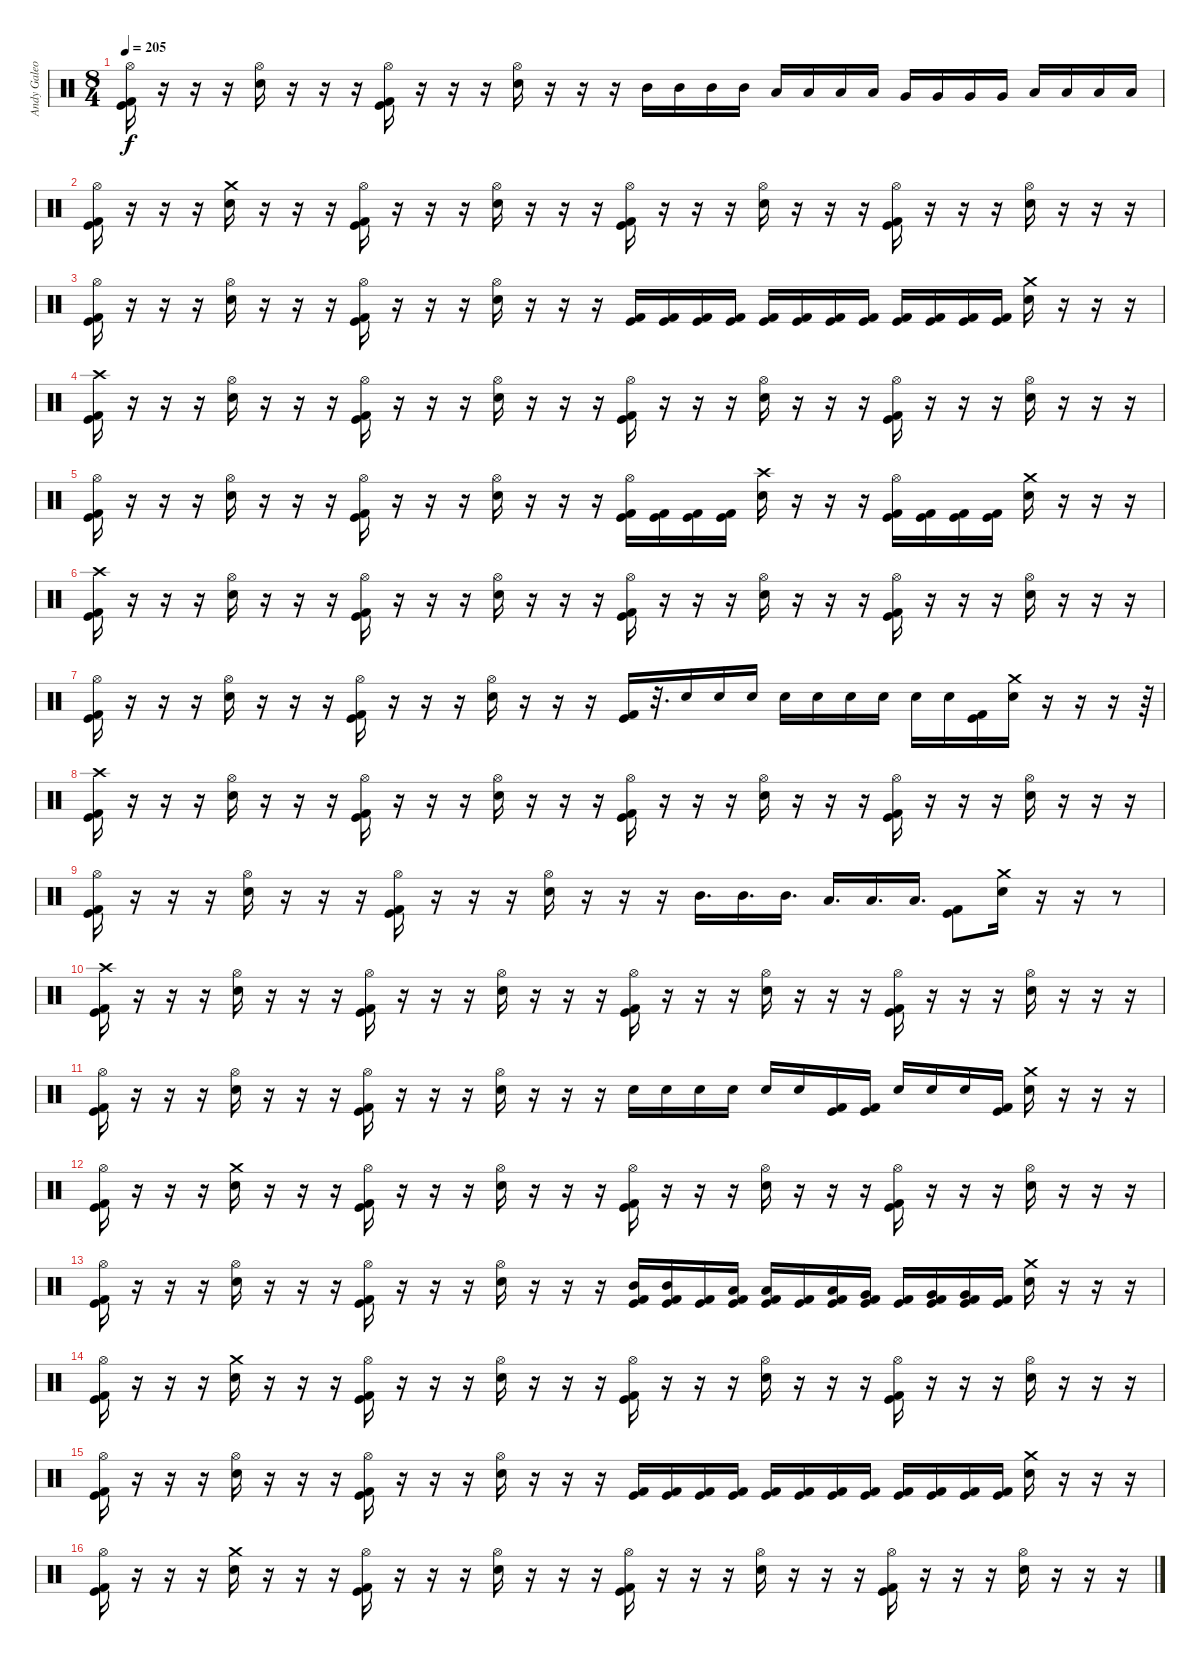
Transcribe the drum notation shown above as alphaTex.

\track ("Andy Galeon - Drums" "Andy Galeo") {instrument percussion}
\staff {score}
\articulation defaults
\ts (8 4)
\tempo 205
\clef neutral
\ks c
("Hi-Hat (open)" "Kick (hit) 2" "Kick (hit)").16{dy f} r.16 r.16 r.16 ("Hi-Hat (open)" "Electric Snare (hit)").16 r.16 r.16 r.16 ("Hi-Hat (open)" "Kick (hit) 2" "Kick (hit)").16 r.16 r.16 r.16 ("Hi-Hat (open)" "Electric Snare (hit)").16 r.16 r.16 r.16 "Mid Tom (hit)".16 "Mid Tom (hit)".16 "Mid Tom (hit)".16 "Mid Tom (hit)".16 "Low Tom (hit)".16 "Low Tom (hit)".16 "Low Tom (hit)".16 "Low Tom (hit)".16 "Very Low Tom (hit)".16 "Very Low Tom (hit)".16 "Very Low Tom (hit)".16 "Very Low Tom (hit)".16 "Low Floor Tom (hit)".16 "Low Floor Tom (hit)".16 "Low Floor Tom (hit)".16 "Low Floor Tom (hit)".16 |
("Hi-Hat (open)" "Kick (hit) 2" "Kick (hit)").16 r.16 r.16 r.16 ("Crash medium (hit)" "Electric Snare (hit)").16 r.16 r.16 r.16 ("Hi-Hat (open)" "Kick (hit) 2" "Kick (hit)").16 r.16 r.16 r.16 ("Hi-Hat (open)" "Electric Snare (hit)").16 r.16 r.16 r.16 ("Hi-Hat (open)" "Kick (hit) 2" "Kick (hit)").16 r.16 r.16 r.16 ("Hi-Hat (open)" "Electric Snare (hit)").16 r.16 r.16 r.16 ("Hi-Hat (open)" "Kick (hit) 2" "Kick (hit)").16 r.16 r.16 r.16 ("Hi-Hat (open)" "Electric Snare (hit)").16 r.16 r.16 r.16 |
("Hi-Hat (open)" "Kick (hit) 2" "Kick (hit)").16 r.16 r.16 r.16 ("Hi-Hat (open)" "Electric Snare (hit)").16 r.16 r.16 r.16 ("Hi-Hat (open)" "Kick (hit) 2" "Kick (hit)").16 r.16 r.16 r.16 ("Hi-Hat (open)" "Electric Snare (hit)").16 r.16 r.16 r.16 ("Kick (hit) 2" "Kick (hit)").16 ("Kick (hit) 2" "Kick (hit)").16 ("Kick (hit)" "Kick (hit) 2").16 ("Kick (hit) 2" "Kick (hit)").16 ("Kick (hit) 2" "Kick (hit)").16 ("Kick (hit) 2" "Kick (hit)").16 ("Kick (hit) 2" "Kick (hit)").16 ("Kick (hit) 2" "Kick (hit)").16 ("Kick (hit) 2" "Kick (hit)").16 ("Kick (hit) 2" "Kick (hit)").16 ("Kick (hit) 2" "Kick (hit)").16 ("Kick (hit) 2" "Kick (hit)").16 ("Crash medium (hit)" "Electric Snare (hit)").16 r.16 r.16 r.16 |
("Crash high (hit)" "Kick (hit) 2" "Kick (hit)").16 r.16 r.16 r.16 ("Hi-Hat (open)" "Electric Snare (hit)").16 r.16 r.16 r.16 ("Hi-Hat (open)" "Kick (hit) 2" "Kick (hit)").16 r.16 r.16 r.16 ("Hi-Hat (open)" "Electric Snare (hit)").16 r.16 r.16 r.16 ("Hi-Hat (open)" "Kick (hit) 2" "Kick (hit)").16 r.16 r.16 r.16 ("Hi-Hat (open)" "Electric Snare (hit)").16 r.16 r.16 r.16 ("Hi-Hat (open)" "Kick (hit) 2" "Kick (hit)").16 r.16 r.16 r.16 ("Hi-Hat (open)" "Electric Snare (hit)").16 r.16 r.16 r.16 |
("Hi-Hat (open)" "Kick (hit) 2" "Kick (hit)").16 r.16 r.16 r.16 ("Hi-Hat (open)" "Electric Snare (hit)").16 r.16 r.16 r.16 ("Hi-Hat (open)" "Kick (hit) 2" "Kick (hit)").16 r.16 r.16 r.16 ("Hi-Hat (open)" "Electric Snare (hit)").16 r.16 r.16 r.16 ("Hi-Hat (open)" "Kick (hit) 2" "Kick (hit)").16 ("Kick (hit) 2" "Kick (hit)").16 ("Kick (hit)" "Kick (hit) 2").16 ("Kick (hit) 2" "Kick (hit)").16 ("Crash high (hit)" "Electric Snare (hit)").16 r.16 r.16 r.16 ("Hi-Hat (open)" "Kick (hit) 2" "Kick (hit)").16 ("Kick (hit) 2" "Kick (hit)").16 ("Kick (hit) 2" "Kick (hit)").16 ("Kick (hit) 2" "Kick (hit)").16 ("Crash medium (hit)" "Electric Snare (hit)").16 r.16 r.16 r.16 |
("Crash high (hit)" "Kick (hit) 2" "Kick (hit)").16 r.16 r.16 r.16 ("Hi-Hat (open)" "Electric Snare (hit)").16 r.16 r.16 r.16 ("Hi-Hat (open)" "Kick (hit) 2" "Kick (hit)").16 r.16 r.16 r.16 ("Hi-Hat (open)" "Electric Snare (hit)").16 r.16 r.16 r.16 ("Hi-Hat (open)" "Kick (hit) 2" "Kick (hit)").16 r.16 r.16 r.16 ("Hi-Hat (open)" "Electric Snare (hit)").16 r.16 r.16 r.16 ("Hi-Hat (open)" "Kick (hit) 2" "Kick (hit)").16 r.16 r.16 r.16 ("Hi-Hat (open)" "Electric Snare (hit)").16 r.16 r.16 r.16 |
("Hi-Hat (open)" "Kick (hit) 2" "Kick (hit)").16 r.16 r.16 r.16 ("Hi-Hat (open)" "Electric Snare (hit)").16 r.16 r.16 r.16 ("Hi-Hat (open)" "Kick (hit) 2" "Kick (hit)").16 r.16 r.16 r.16 ("Hi-Hat (open)" "Electric Snare (hit)").16 r.16 r.16 r.16 ("Kick (hit) 2" "Kick (hit)").16 r.32{d} "Electric Snare (hit)".16 "Electric Snare (hit)".16 "Electric Snare (hit)".16 "Electric Snare (hit)".16 "Electric Snare (hit)".16 "Electric Snare (hit)".16 "Electric Snare (hit)".16 "Electric Snare (hit)".16 "Electric Snare (hit)".16 ("Kick (hit) 2" "Kick (hit)").16 ("Crash medium (hit)" "Electric Snare (hit)").16 r.16 r.16 r.16 r.64 |
("Crash high (hit)" "Kick (hit) 2" "Kick (hit)").16 r.16 r.16 r.16 ("Hi-Hat (open)" "Electric Snare (hit)").16 r.16 r.16 r.16 ("Hi-Hat (open)" "Kick (hit) 2" "Kick (hit)").16 r.16 r.16 r.16 ("Hi-Hat (open)" "Electric Snare (hit)").16 r.16 r.16 r.16 ("Hi-Hat (open)" "Kick (hit) 2" "Kick (hit)").16 r.16 r.16 r.16 ("Hi-Hat (open)" "Electric Snare (hit)").16 r.16 r.16 r.16 ("Hi-Hat (open)" "Kick (hit) 2" "Kick (hit)").16 r.16 r.16 r.16 ("Hi-Hat (open)" "Electric Snare (hit)").16 r.16 r.16 r.16 |
("Hi-Hat (open)" "Kick (hit) 2" "Kick (hit)").16 r.16 r.16 r.16 ("Hi-Hat (open)" "Electric Snare (hit)").16 r.16 r.16 r.16 ("Hi-Hat (open)" "Kick (hit) 2" "Kick (hit)").16 r.16 r.16 r.16 ("Hi-Hat (open)" "Electric Snare (hit)").16 r.16 r.16 r.16 "Mid Tom (hit)".16{d} "Mid Tom (hit)".16{d} "Mid Tom (hit)".16{d} "Low Tom (hit)".16{d} "Low Tom (hit)".16{d} "Low Tom (hit)".16{d} ("Kick (hit) 2" "Kick (hit)").8 ("Crash medium (hit)" "Electric Snare (hit)").16 r.16 r.16 r.8 |
("Crash high (hit)" "Kick (hit) 2" "Kick (hit)").16 r.16 r.16 r.16 ("Hi-Hat (open)" "Electric Snare (hit)").16 r.16 r.16 r.16 ("Hi-Hat (open)" "Kick (hit) 2" "Kick (hit)").16 r.16 r.16 r.16 ("Hi-Hat (open)" "Electric Snare (hit)").16 r.16 r.16 r.16 ("Hi-Hat (open)" "Kick (hit) 2" "Kick (hit)").16 r.16 r.16 r.16 ("Hi-Hat (open)" "Electric Snare (hit)").16 r.16 r.16 r.16 ("Hi-Hat (open)" "Kick (hit) 2" "Kick (hit)").16 r.16 r.16 r.16 ("Hi-Hat (open)" "Electric Snare (hit)").16 r.16 r.16 r.16 |
("Hi-Hat (open)" "Kick (hit) 2" "Kick (hit)").16 r.16 r.16 r.16 ("Hi-Hat (open)" "Electric Snare (hit)").16 r.16 r.16 r.16 ("Hi-Hat (open)" "Kick (hit) 2" "Kick (hit)").16 r.16 r.16 r.16 ("Hi-Hat (open)" "Electric Snare (hit)").16 r.16 r.16 r.16 "Electric Snare (hit)".16 "Electric Snare (hit)".16 "Electric Snare (hit)".16 "Electric Snare (hit)".16 "Electric Snare (hit)".16 "Electric Snare (hit)".16 ("Kick (hit) 2" "Kick (hit)").16 ("Kick (hit) 2" "Kick (hit)").16 "Electric Snare (hit)".16 "Electric Snare (hit)".16 "Electric Snare (hit)".16 ("Kick (hit) 2" "Kick (hit)").16 ("Crash medium (hit)" "Electric Snare (hit)").16 r.16 r.16 r.16 |
("Hi-Hat (open)" "Kick (hit) 2" "Kick (hit)").16 r.16 r.16 r.16 ("Crash medium (hit)" "Electric Snare (hit)").16 r.16 r.16 r.16 ("Hi-Hat (open)" "Kick (hit) 2" "Kick (hit)").16 r.16 r.16 r.16 ("Hi-Hat (open)" "Electric Snare (hit)").16 r.16 r.16 r.16 ("Hi-Hat (open)" "Kick (hit) 2" "Kick (hit)").16 r.16 r.16 r.16 ("Hi-Hat (open)" "Electric Snare (hit)").16 r.16 r.16 r.16 ("Hi-Hat (open)" "Kick (hit) 2" "Kick (hit)").16 r.16 r.16 r.16 ("Hi-Hat (open)" "Electric Snare (hit)").16 r.16 r.16 r.16 |
("Hi-Hat (open)" "Kick (hit) 2" "Kick (hit)").16 r.16 r.16 r.16 ("Hi-Hat (open)" "Electric Snare (hit)").16 r.16 r.16 r.16 ("Hi-Hat (open)" "Kick (hit) 2" "Kick (hit)").16 r.16 r.16 r.16 ("Hi-Hat (open)" "Electric Snare (hit)").16 r.16 r.16 r.16 ("Mid Tom (hit)" "Kick (hit) 2" "Kick (hit)").16 ("Mid Tom (hit)" "Kick (hit) 2" "Kick (hit)").16 ("Kick (hit) 2" "Kick (hit)").16 ("Low Tom (hit)" "Kick (hit) 2" "Kick (hit)").16 ("Low Tom (hit)" "Kick (hit) 2" "Kick (hit)").16 ("Kick (hit) 2" "Kick (hit)").16 ("Low Tom (hit)" "Kick (hit) 2" "Kick (hit)").16 ("Very Low Tom (hit)" "Kick (hit) 2" "Kick (hit)").16 ("Kick (hit) 2" "Kick (hit)").16 ("Very Low Tom (hit)" "Kick (hit) 2" "Kick (hit)").16 ("Very Low Tom (hit)" "Kick (hit) 2" "Kick (hit)").16 ("Kick (hit) 2" "Kick (hit)").16 ("Crash medium (hit)" "Electric Snare (hit)").16 r.16 r.16 r.16 |
("Hi-Hat (open)" "Kick (hit) 2" "Kick (hit)").16 r.16 r.16 r.16 ("Crash medium (hit)" "Electric Snare (hit)").16 r.16 r.16 r.16 ("Hi-Hat (open)" "Kick (hit) 2" "Kick (hit)").16 r.16 r.16 r.16 ("Hi-Hat (open)" "Electric Snare (hit)").16 r.16 r.16 r.16 ("Hi-Hat (open)" "Kick (hit) 2" "Kick (hit)").16 r.16 r.16 r.16 ("Hi-Hat (open)" "Electric Snare (hit)").16 r.16 r.16 r.16 ("Hi-Hat (open)" "Kick (hit) 2" "Kick (hit)").16 r.16 r.16 r.16 ("Hi-Hat (open)" "Electric Snare (hit)").16 r.16 r.16 r.16 |
("Hi-Hat (open)" "Kick (hit) 2" "Kick (hit)").16 r.16 r.16 r.16 ("Hi-Hat (open)" "Electric Snare (hit)").16 r.16 r.16 r.16 ("Hi-Hat (open)" "Kick (hit) 2" "Kick (hit)").16 r.16 r.16 r.16 ("Hi-Hat (open)" "Electric Snare (hit)").16 r.16 r.16 r.16 ("Kick (hit) 2" "Kick (hit)").16 ("Kick (hit) 2" "Kick (hit)").16 ("Kick (hit)" "Kick (hit) 2").16 ("Kick (hit) 2" "Kick (hit)").16 ("Kick (hit) 2" "Kick (hit)").16 ("Kick (hit) 2" "Kick (hit)").16 ("Kick (hit) 2" "Kick (hit)").16 ("Kick (hit) 2" "Kick (hit)").16 ("Kick (hit) 2" "Kick (hit)").16 ("Kick (hit) 2" "Kick (hit)").16 ("Kick (hit) 2" "Kick (hit)").16 ("Kick (hit) 2" "Kick (hit)").16 ("Crash medium (hit)" "Electric Snare (hit)").16 r.16 r.16 r.16 |
("Hi-Hat (open)" "Kick (hit) 2" "Kick (hit)").16 r.16 r.16 r.16 ("Crash medium (hit)" "Electric Snare (hit)").16 r.16 r.16 r.16 ("Hi-Hat (open)" "Kick (hit) 2" "Kick (hit)").16 r.16 r.16 r.16 ("Hi-Hat (open)" "Electric Snare (hit)").16 r.16 r.16 r.16 ("Hi-Hat (open)" "Kick (hit) 2" "Kick (hit)").16 r.16 r.16 r.16 ("Hi-Hat (open)" "Electric Snare (hit)").16 r.16 r.16 r.16 ("Hi-Hat (open)" "Kick (hit) 2" "Kick (hit)").16 r.16 r.16 r.16 ("Hi-Hat (open)" "Electric Snare (hit)").16 r.16 r.16 r.16
